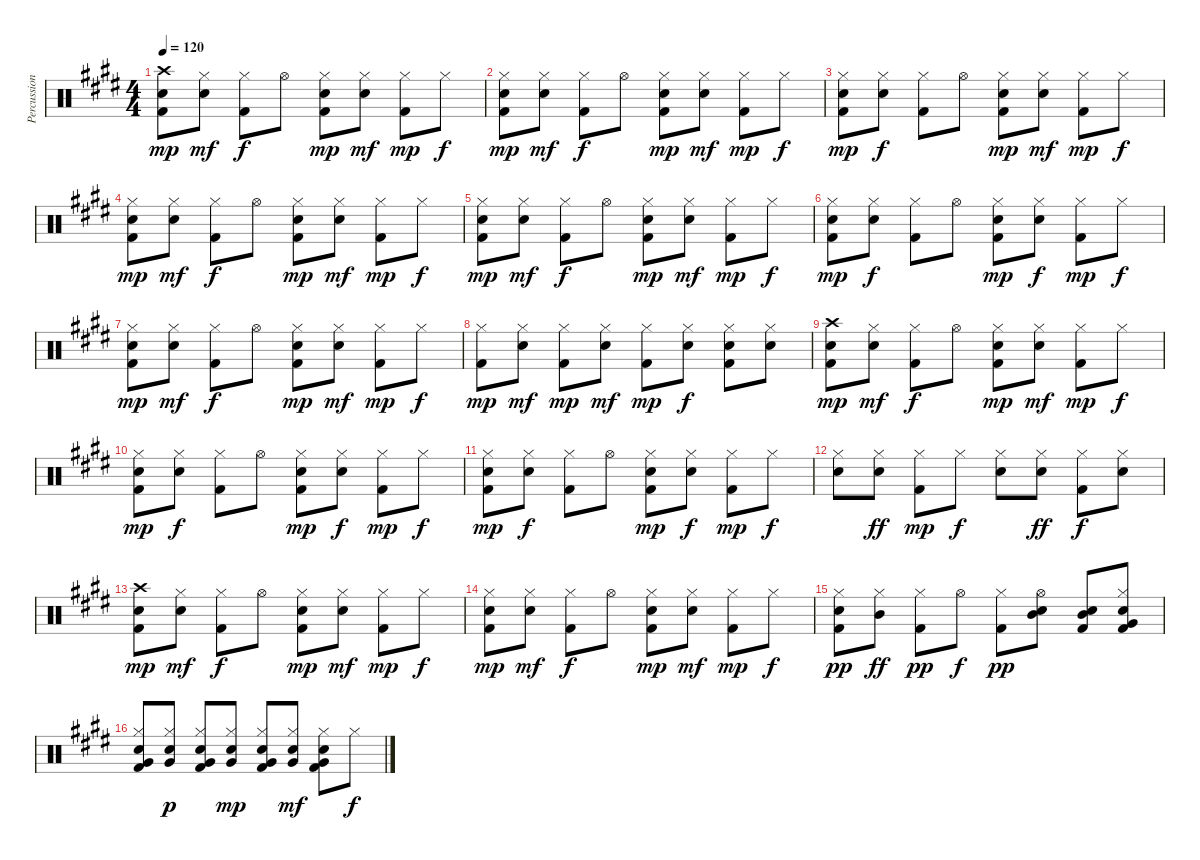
\track ("Percussion" "Percussion") {instrument percussion}
\staff {score}
\articulation defaults
\ts (4 4)
\tempo 120
\clef neutral
\ks e
("Crash high (hit)" "Snare (hit) 2" "Kick (hit) 2").8{dy mp} ("Hi-Hat (closed)" "Snare (hit) 2").8{dy mf} ("Hi-Hat (closed)" "Kick (hit) 2").8{dy f} "Hi-Hat (open)".8 ("Hi-Hat (closed)" "Snare (hit) 2" "Kick (hit) 2").8{dy mp} ("Hi-Hat (closed)" "Snare (hit) 2").8{dy mf} ("Hi-Hat (closed)" "Kick (hit) 2").8{dy mp} "Hi-Hat (closed)".8{dy f} |
("Hi-Hat (closed)" "Snare (hit) 2" "Kick (hit) 2").8{dy mp} ("Hi-Hat (closed)" "Snare (hit) 2").8{dy mf} ("Hi-Hat (closed)" "Kick (hit) 2").8{dy f} "Hi-Hat (open)".8 ("Hi-Hat (closed)" "Snare (hit) 2" "Kick (hit) 2").8{dy mp} ("Hi-Hat (closed)" "Snare (hit) 2").8{dy mf} ("Hi-Hat (closed)" "Kick (hit) 2").8{dy mp} "Hi-Hat (closed)".8{dy f} |
("Hi-Hat (closed)" "Snare (hit) 2" "Kick (hit) 2").8{dy mp} ("Hi-Hat (closed)" "Snare (hit) 2").8{dy f} ("Hi-Hat (closed)" "Kick (hit) 2").8 "Hi-Hat (open)".8 ("Hi-Hat (closed)" "Snare (hit) 2" "Kick (hit) 2").8{dy mp} ("Hi-Hat (closed)" "Snare (hit) 2").8{dy mf} ("Hi-Hat (closed)" "Kick (hit) 2").8{dy mp} "Hi-Hat (closed)".8{dy f} |
("Hi-Hat (closed)" "Snare (hit) 2" "Kick (hit) 2").8{dy mp} ("Hi-Hat (closed)" "Snare (hit) 2").8{dy mf} ("Hi-Hat (closed)" "Kick (hit) 2").8{dy f} "Hi-Hat (open)".8 ("Hi-Hat (closed)" "Snare (hit) 2" "Kick (hit) 2").8{dy mp} ("Hi-Hat (closed)" "Snare (hit) 2").8{dy mf} ("Hi-Hat (closed)" "Kick (hit) 2").8{dy mp} "Hi-Hat (closed)".8{dy f} |
("Hi-Hat (closed)" "Snare (hit) 2" "Kick (hit) 2").8{dy mp} ("Hi-Hat (closed)" "Snare (hit) 2").8{dy mf} ("Hi-Hat (closed)" "Kick (hit) 2").8{dy f} "Hi-Hat (open)".8 ("Hi-Hat (closed)" "Snare (hit) 2" "Kick (hit) 2").8{dy mp} ("Hi-Hat (closed)" "Snare (hit) 2").8{dy mf} ("Hi-Hat (closed)" "Kick (hit) 2").8{dy mp} "Hi-Hat (closed)".8{dy f} |
("Hi-Hat (closed)" "Snare (hit) 2" "Kick (hit) 2").8{dy mp} ("Hi-Hat (closed)" "Snare (hit) 2").8{dy f} ("Hi-Hat (closed)" "Kick (hit) 2").8 "Hi-Hat (open)".8 ("Hi-Hat (closed)" "Snare (hit) 2" "Kick (hit) 2").8{dy mp} ("Hi-Hat (closed)" "Snare (hit) 2").8{dy f} ("Hi-Hat (closed)" "Kick (hit) 2").8{dy mp} "Hi-Hat (closed)".8{dy f} |
("Hi-Hat (closed)" "Snare (hit) 2" "Kick (hit) 2").8{dy mp} ("Hi-Hat (closed)" "Snare (hit) 2").8{dy mf} ("Hi-Hat (closed)" "Kick (hit) 2").8{dy f} "Hi-Hat (open)".8 ("Hi-Hat (closed)" "Snare (hit) 2" "Kick (hit) 2").8{dy mp} ("Hi-Hat (closed)" "Snare (hit) 2").8{dy mf} ("Hi-Hat (closed)" "Kick (hit) 2").8{dy mp} "Hi-Hat (closed)".8{dy f} |
("Hi-Hat (closed)" "Kick (hit) 2").8{dy mp} ("Hi-Hat (closed)" "Snare (hit) 2").8{dy mf} ("Hi-Hat (closed)" "Kick (hit) 2").8{dy mp} ("Hi-Hat (closed)" "Snare (hit) 2").8{dy mf} ("Hi-Hat (closed)" "Kick (hit) 2").8{dy mp} ("Hi-Hat (closed)" "Snare (hit) 2").8{dy f} ("Hi-Hat (closed)" "Snare (hit) 2" "Kick (hit) 2").8 ("Hi-Hat (closed)" "Snare (hit) 2").8 |
("Crash high (hit)" "Snare (hit) 2" "Kick (hit) 2").8{dy mp} ("Hi-Hat (closed)" "Snare (hit) 2").8{dy mf} ("Hi-Hat (closed)" "Kick (hit) 2").8{dy f} "Hi-Hat (open)".8 ("Hi-Hat (closed)" "Snare (hit) 2" "Kick (hit) 2").8{dy mp} ("Hi-Hat (closed)" "Snare (hit) 2").8{dy mf} ("Hi-Hat (closed)" "Kick (hit) 2").8{dy mp} "Hi-Hat (closed)".8{dy f} |
("Hi-Hat (closed)" "Snare (hit) 2" "Kick (hit) 2").8{dy mp} ("Hi-Hat (closed)" "Snare (hit) 2").8{dy f} ("Hi-Hat (closed)" "Kick (hit) 2").8 "Hi-Hat (open)".8 ("Hi-Hat (closed)" "Snare (hit) 2" "Kick (hit) 2").8{dy mp} ("Hi-Hat (closed)" "Snare (hit) 2").8{dy f} ("Hi-Hat (closed)" "Kick (hit) 2").8{dy mp} "Hi-Hat (closed)".8{dy f} |
("Hi-Hat (closed)" "Snare (hit) 2" "Kick (hit) 2").8{dy mp} ("Hi-Hat (closed)" "Snare (hit) 2").8{dy f} ("Hi-Hat (closed)" "Kick (hit) 2").8 "Hi-Hat (open)".8 ("Hi-Hat (closed)" "Snare (hit) 2" "Kick (hit) 2").8{dy mp} ("Hi-Hat (closed)" "Snare (hit) 2").8{dy f} ("Hi-Hat (closed)" "Kick (hit) 2").8{dy mp} "Hi-Hat (closed)".8{dy f} |
("Hi-Hat (closed)" "Snare (hit) 2").8 ("Hi-Hat (closed)" "Snare (hit) 2").8{dy ff} ("Hi-Hat (closed)" "Kick (hit) 2").8{dy mp} "Hi-Hat (closed)".8{dy f} ("Hi-Hat (closed)" "Snare (hit) 2").8 ("Hi-Hat (closed)" "Snare (hit) 2").8{dy ff} ("Hi-Hat (closed)" "Kick (hit) 2").8{dy f} ("Hi-Hat (closed)" "Snare (hit) 2").8 |
("Crash high (hit)" "Snare (hit) 2" "Kick (hit) 2").8{dy mp} ("Hi-Hat (closed)" "Snare (hit) 2").8{dy mf} ("Hi-Hat (closed)" "Kick (hit) 2").8{dy f} "Hi-Hat (open)".8 ("Hi-Hat (closed)" "Snare (hit) 2" "Kick (hit) 2").8{dy mp} ("Hi-Hat (closed)" "Snare (hit) 2").8{dy mf} ("Hi-Hat (closed)" "Kick (hit) 2").8{dy mp} "Hi-Hat (closed)".8{dy f} |
("Hi-Hat (closed)" "Snare (hit) 2" "Kick (hit) 2").8{dy mp} ("Hi-Hat (closed)" "Snare (hit) 2").8{dy mf} ("Hi-Hat (closed)" "Kick (hit) 2").8{dy f} "Hi-Hat (open)".8 ("Hi-Hat (closed)" "Snare (hit) 2" "Kick (hit) 2").8{dy mp} ("Hi-Hat (closed)" "Snare (hit) 2").8{dy mf} ("Hi-Hat (closed)" "Kick (hit) 2").8{dy mp} "Hi-Hat (closed)".8{dy f} |
("Hi-Hat (closed)" "Snare (hit) 2" "Kick (hit) 2").8{dy pp} ("Hi-Hat (closed)" "Mid Tom (hit)").8{dy ff} ("Hi-Hat (closed)" "Kick (hit) 2").8{dy pp} "Hi-Hat (open)".8{dy f} ("Hi-Hat (closed)" "Kick (hit) 2").8{dy pp} ("Hi-Hat (open)" "Mid Tom (hit)" "Snare (hit) 2").8 ("Mid Tom (hit)" "Snare (hit) 2" "Kick (hit) 2").8 ("Hi-Hat (closed)" "Very Low Tom (hit)" "Snare (hit) 2" "Kick (hit) 2").8 |
("Hi-Hat (closed)" "Very Low Tom (hit)" "Snare (hit) 2" "Kick (hit) 2").8 ("Hi-Hat (closed)" "Very Low Tom (hit)" "Snare (hit) 2").8{dy p} ("Hi-Hat (closed)" "Very Low Tom (hit)" "Snare (hit) 2" "Kick (hit) 2").8 ("Hi-Hat (closed)" "Very Low Tom (hit)" "Snare (hit) 2").8{dy mp} ("Hi-Hat (closed)" "Very Low Tom (hit)" "Snare (hit) 2" "Kick (hit) 2").8 ("Hi-Hat (closed)" "Very Low Tom (hit)" "Snare (hit) 2").8{dy mf} ("Hi-Hat (closed)" "Very Low Tom (hit)" "Snare (hit) 2" "Kick (hit) 2").8 "Hi-Hat (closed)".8{dy f}
